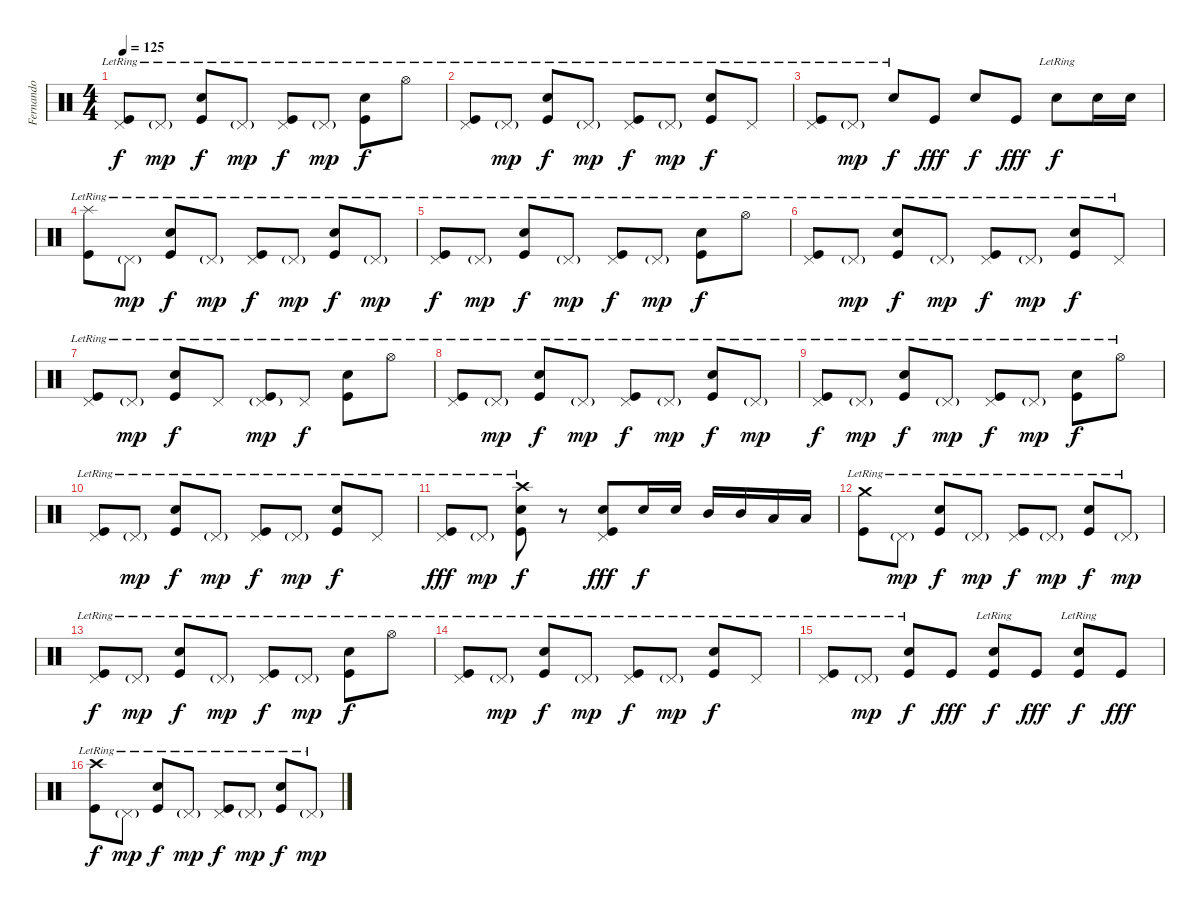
\track ("Fernando" "Fernando") {instrument percussion}
\staff {score}
\articulation defaults
\ts (4 4)
\tempo 125
\clef neutral
\ks c
("Pedal Hi-Hat (hit)"{lr} "Kick (hit)"{lr}).8{dy f} "Pedal Hi-Hat (hit)"{g lr}.8{dy mp} ("Electric Snare (hit)"{lr} "Kick (hit)"{lr}).8{dy f} "Pedal Hi-Hat (hit)"{g lr}.8{dy mp} ("Pedal Hi-Hat (hit)"{lr} "Kick (hit)"{lr}).8{dy f} "Pedal Hi-Hat (hit)"{g lr}.8{dy mp} ("Electric Snare (hit)"{lr} "Kick (hit)"{lr}).8{dy f} "Hi-Hat (open)"{lr}.8 |
("Pedal Hi-Hat (hit)"{lr} "Kick (hit)"{lr}).8 "Pedal Hi-Hat (hit)"{g lr}.8{dy mp} ("Electric Snare (hit)"{lr} "Kick (hit)"{lr}).8{dy f} "Pedal Hi-Hat (hit)"{g lr}.8{dy mp} ("Pedal Hi-Hat (hit)"{lr} "Kick (hit)"{lr}).8{dy f} "Pedal Hi-Hat (hit)"{g lr}.8{dy mp} ("Electric Snare (hit)"{lr} "Kick (hit)"{lr}).8{dy f} "Pedal Hi-Hat (hit)"{lr}.8 |
("Pedal Hi-Hat (hit)"{lr} "Kick (hit)"{lr}).8 "Pedal Hi-Hat (hit)"{g lr}.8{dy mp} "Electric Snare (hit)"{lr}.8{dy f} "Kick (hit)".8{dy fff} "Electric Snare (hit)".8{dy f} "Kick (hit)".8{dy fff} "Electric Snare (hit)"{lr}.8{dy f} "Electric Snare (hit)".16 "Electric Snare (hit)".16 |
("Splash (hit)" "Kick (hit)"{lr}).8 "Pedal Hi-Hat (hit)"{g lr}.8{dy mp} ("Electric Snare (hit)"{lr} "Kick (hit)"{lr}).8{dy f} "Pedal Hi-Hat (hit)"{g lr}.8{dy mp} ("Pedal Hi-Hat (hit)"{lr} "Kick (hit)"{lr}).8{dy f} "Pedal Hi-Hat (hit)"{g lr}.8{dy mp} ("Electric Snare (hit)"{lr} "Kick (hit)"{lr}).8{dy f} "Pedal Hi-Hat (hit)"{g lr}.8{dy mp} |
("Pedal Hi-Hat (hit)"{lr} "Kick (hit)"{lr}).8{dy f} "Pedal Hi-Hat (hit)"{g lr}.8{dy mp} ("Electric Snare (hit)"{lr} "Kick (hit)"{lr}).8{dy f} "Pedal Hi-Hat (hit)"{g lr}.8{dy mp} ("Pedal Hi-Hat (hit)"{lr} "Kick (hit)"{lr}).8{dy f} "Pedal Hi-Hat (hit)"{g lr}.8{dy mp} ("Electric Snare (hit)"{lr} "Kick (hit)"{lr}).8{dy f} "Hi-Hat (open)"{lr}.8 |
("Pedal Hi-Hat (hit)"{lr} "Kick (hit)"{lr}).8 "Pedal Hi-Hat (hit)"{g lr}.8{dy mp} ("Electric Snare (hit)"{lr} "Kick (hit)"{lr}).8{dy f} "Pedal Hi-Hat (hit)"{g lr}.8{dy mp} ("Pedal Hi-Hat (hit)"{lr} "Kick (hit)"{lr}).8{dy f} "Pedal Hi-Hat (hit)"{g lr}.8{dy mp} ("Electric Snare (hit)"{lr} "Kick (hit)"{lr}).8{dy f} "Pedal Hi-Hat (hit)"{lr}.8 |
("Pedal Hi-Hat (hit)"{lr} "Kick (hit)"{lr}).8 "Pedal Hi-Hat (hit)"{g lr}.8{dy mp} ("Electric Snare (hit)"{lr} "Kick (hit)"{lr}).8{dy f} "Pedal Hi-Hat (hit)"{lr}.8 ("Pedal Hi-Hat (hit)"{g lr} "Kick (hit)"{lr}).8{dy mp} "Pedal Hi-Hat (hit)"{lr}.8{dy f} ("Electric Snare (hit)"{lr} "Kick (hit)"{lr}).8 "Hi-Hat (open)"{lr}.8 |
("Pedal Hi-Hat (hit)"{lr} "Kick (hit)"{lr}).8 "Pedal Hi-Hat (hit)"{g lr}.8{dy mp} ("Electric Snare (hit)"{lr} "Kick (hit)"{lr}).8{dy f} "Pedal Hi-Hat (hit)"{g lr}.8{dy mp} ("Pedal Hi-Hat (hit)"{lr} "Kick (hit)"{lr}).8{dy f} "Pedal Hi-Hat (hit)"{g lr}.8{dy mp} ("Electric Snare (hit)"{lr} "Kick (hit)"{lr}).8{dy f} "Pedal Hi-Hat (hit)"{g lr}.8{dy mp} |
("Pedal Hi-Hat (hit)"{lr} "Kick (hit)"{lr}).8{dy f} "Pedal Hi-Hat (hit)"{g lr}.8{dy mp} ("Electric Snare (hit)"{lr} "Kick (hit)"{lr}).8{dy f} "Pedal Hi-Hat (hit)"{g lr}.8{dy mp} ("Pedal Hi-Hat (hit)"{lr} "Kick (hit)"{lr}).8{dy f} "Pedal Hi-Hat (hit)"{g lr}.8{dy mp} ("Electric Snare (hit)"{lr} "Kick (hit)"{lr}).8{dy f} "Hi-Hat (open)"{lr}.8 |
("Pedal Hi-Hat (hit)"{lr} "Kick (hit)"{lr}).8 "Pedal Hi-Hat (hit)"{g lr}.8{dy mp} ("Electric Snare (hit)"{lr} "Kick (hit)"{lr}).8{dy f} "Pedal Hi-Hat (hit)"{g lr}.8{dy mp} ("Pedal Hi-Hat (hit)"{lr} "Kick (hit)"{lr}).8{dy f} "Pedal Hi-Hat (hit)"{g lr}.8{dy mp} ("Electric Snare (hit)"{lr} "Kick (hit)"{lr}).8{dy f} "Pedal Hi-Hat (hit)"{lr}.8 |
("Pedal Hi-Hat (hit)"{lr} "Kick (hit)"{lr}).8{dy fff} "Pedal Hi-Hat (hit)"{g lr}.8{dy mp} ("Crash high (hit)" "Electric Snare (hit)"{lr} "Kick (hit)"{lr}).8{dy f} r.8 ("Pedal Hi-Hat (hit)" "Electric Snare (hit)" "Kick (hit)").8{dy fff} "Electric Snare (hit)".16{dy f} "Electric Snare (hit)".16 "Mid Tom (hit)".16 "Mid Tom (hit)".16 "Low Tom (hit)".16 "Low Tom (hit)".16 |
("Crash medium (hit)"{lr} "Kick (hit)"{lr}).8 "Pedal Hi-Hat (hit)"{g lr}.8{dy mp} ("Electric Snare (hit)"{lr} "Kick (hit)"{lr}).8{dy f} "Pedal Hi-Hat (hit)"{g lr}.8{dy mp} ("Pedal Hi-Hat (hit)"{lr} "Kick (hit)"{lr}).8{dy f} "Pedal Hi-Hat (hit)"{g lr}.8{dy mp} ("Electric Snare (hit)"{lr} "Kick (hit)"{lr}).8{dy f} "Pedal Hi-Hat (hit)"{g lr}.8{dy mp} |
("Pedal Hi-Hat (hit)"{lr} "Kick (hit)"{lr}).8{dy f} "Pedal Hi-Hat (hit)"{g lr}.8{dy mp} ("Electric Snare (hit)"{lr} "Kick (hit)"{lr}).8{dy f} "Pedal Hi-Hat (hit)"{g lr}.8{dy mp} ("Pedal Hi-Hat (hit)"{lr} "Kick (hit)"{lr}).8{dy f} "Pedal Hi-Hat (hit)"{g lr}.8{dy mp} ("Electric Snare (hit)"{lr} "Kick (hit)"{lr}).8{dy f} "Hi-Hat (open)"{lr}.8 |
("Pedal Hi-Hat (hit)"{lr} "Kick (hit)"{lr}).8 "Pedal Hi-Hat (hit)"{g lr}.8{dy mp} ("Electric Snare (hit)"{lr} "Kick (hit)"{lr}).8{dy f} "Pedal Hi-Hat (hit)"{g lr}.8{dy mp} ("Pedal Hi-Hat (hit)"{lr} "Kick (hit)"{lr}).8{dy f} "Pedal Hi-Hat (hit)"{g lr}.8{dy mp} ("Electric Snare (hit)"{lr} "Kick (hit)"{lr}).8{dy f} "Pedal Hi-Hat (hit)"{lr}.8 |
("Pedal Hi-Hat (hit)"{lr} "Kick (hit)"{lr}).8 "Pedal Hi-Hat (hit)"{g lr}.8{dy mp} ("Electric Snare (hit)"{lr} "Kick (hit)"{lr}).8{dy f} "Kick (hit)".8{dy fff} ("Electric Snare (hit)" "Kick (hit)"{lr}).8{dy f} "Kick (hit)".8{dy fff} ("Electric Snare (hit)"{lr} "Kick (hit)"{lr}).8{dy f} "Kick (hit)".8{dy fff} |
("Crash high (hit)"{lr} "Kick (hit)"{lr}).8{dy f} "Pedal Hi-Hat (hit)"{g lr}.8{dy mp} ("Electric Snare (hit)"{lr} "Kick (hit)"{lr}).8{dy f} "Pedal Hi-Hat (hit)"{g lr}.8{dy mp} ("Pedal Hi-Hat (hit)"{lr} "Kick (hit)"{lr}).8{dy f} "Pedal Hi-Hat (hit)"{g lr}.8{dy mp} ("Electric Snare (hit)"{lr} "Kick (hit)"{lr}).8{dy f} "Pedal Hi-Hat (hit)"{g lr}.8{dy mp}
